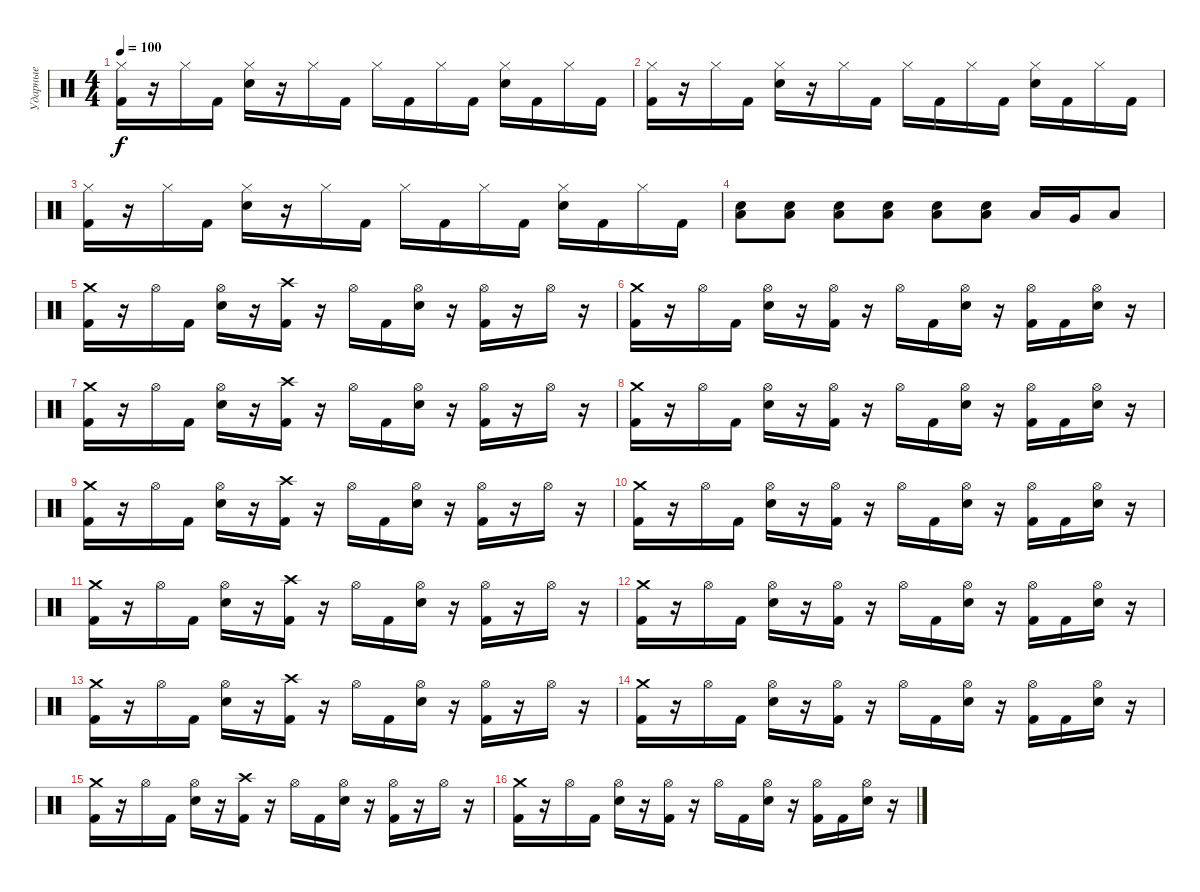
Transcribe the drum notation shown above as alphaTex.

\track ("Ударные" "Ударные") {instrument percussion}
\staff {score}
\articulation defaults
\ts (4 4)
\tempo 100
\clef neutral
\ks c
("Hi-Hat (closed)" "Kick (hit) 2").16{dy f} r.16 "Hi-Hat (closed)".16 "Kick (hit) 2".16 ("Hi-Hat (closed)" "Snare (hit) 2").16 r.16 "Hi-Hat (closed)".16 "Kick (hit) 2".16 "Hi-Hat (closed)".16 "Kick (hit) 2".16 "Hi-Hat (closed)".16 "Kick (hit) 2".16 ("Hi-Hat (closed)" "Snare (hit) 2").16 "Kick (hit) 2".16 "Hi-Hat (closed)".16 "Kick (hit) 2".16 |
("Hi-Hat (closed)" "Kick (hit) 2").16 r.16 "Hi-Hat (closed)".16 "Kick (hit) 2".16 ("Hi-Hat (closed)" "Snare (hit) 2").16 r.16 "Hi-Hat (closed)".16 "Kick (hit) 2".16 "Hi-Hat (closed)".16 "Kick (hit) 2".16 "Hi-Hat (closed)".16 "Kick (hit) 2".16 ("Hi-Hat (closed)" "Snare (hit) 2").16 "Kick (hit) 2".16 "Hi-Hat (closed)".16 "Kick (hit) 2".16 |
("Hi-Hat (closed)" "Kick (hit) 2").16 r.16 "Hi-Hat (closed)".16 "Kick (hit) 2".16 ("Hi-Hat (closed)" "Snare (hit) 2").16 r.16 "Hi-Hat (closed)".16 "Kick (hit) 2".16 "Hi-Hat (closed)".16 "Kick (hit) 2".16 "Hi-Hat (closed)".16 "Kick (hit) 2".16 ("Hi-Hat (closed)" "Snare (hit) 2").16 "Kick (hit) 2".16 "Hi-Hat (closed)".16 "Kick (hit) 2".16 |
("Low Floor Tom (hit)" "Snare (hit) 2").8 ("Low Floor Tom (hit)" "Snare (hit) 2").8 ("Low Floor Tom (hit)" "Snare (hit) 2").8 ("Low Floor Tom (hit)" "Snare (hit) 2").8 ("Low Floor Tom (hit)" "Snare (hit) 2").8 ("Low Floor Tom (hit)" "Snare (hit) 2").8 "Low Tom (hit)".16 "Very Low Tom (hit)".16 "Low Floor Tom (hit)".8 |
("Crash medium (hit)" "Kick (hit) 2").16 r.16 "Hi-Hat (open)".16 "Kick (hit) 2".16 ("Hi-Hat (open)" "Snare (hit) 2").16 r.16 ("Crash high (hit)" "Kick (hit) 2").16 r.16 "Hi-Hat (open)".16 "Kick (hit) 2".16 ("Hi-Hat (open)" "Snare (hit) 2").16 r.16 ("Hi-Hat (open)" "Kick (hit) 2").16 r.16 "Hi-Hat (open)".16 r.16 |
("Crash medium (hit)" "Kick (hit) 2").16 r.16 "Hi-Hat (open)".16 "Kick (hit) 2".16 ("Hi-Hat (open)" "Snare (hit) 2").16 r.16 ("Hi-Hat (open)" "Kick (hit) 2").16 r.16 "Hi-Hat (open)".16 "Kick (hit) 2".16 ("Hi-Hat (open)" "Snare (hit) 2").16 r.16 ("Hi-Hat (open)" "Kick (hit) 2").16 "Kick (hit) 2".16 ("Hi-Hat (open)" "Snare (hit) 2").16 r.16 |
("Crash medium (hit)" "Kick (hit) 2").16 r.16 "Hi-Hat (open)".16 "Kick (hit) 2".16 ("Hi-Hat (open)" "Snare (hit) 2").16 r.16 ("Crash high (hit)" "Kick (hit) 2").16 r.16 "Hi-Hat (open)".16 "Kick (hit) 2".16 ("Hi-Hat (open)" "Snare (hit) 2").16 r.16 ("Hi-Hat (open)" "Kick (hit) 2").16 r.16 "Hi-Hat (open)".16 r.16 |
("Crash medium (hit)" "Kick (hit) 2").16 r.16 "Hi-Hat (open)".16 "Kick (hit) 2".16 ("Hi-Hat (open)" "Snare (hit) 2").16 r.16 ("Hi-Hat (open)" "Kick (hit) 2").16 r.16 "Hi-Hat (open)".16 "Kick (hit) 2".16 ("Hi-Hat (open)" "Snare (hit) 2").16 r.16 ("Hi-Hat (open)" "Kick (hit) 2").16 "Kick (hit) 2".16 ("Hi-Hat (open)" "Snare (hit) 2").16 r.16 |
("Crash medium (hit)" "Kick (hit) 2").16 r.16 "Hi-Hat (open)".16 "Kick (hit) 2".16 ("Hi-Hat (open)" "Snare (hit) 2").16 r.16 ("Crash high (hit)" "Kick (hit) 2").16 r.16 "Hi-Hat (open)".16 "Kick (hit) 2".16 ("Hi-Hat (open)" "Snare (hit) 2").16 r.16 ("Hi-Hat (open)" "Kick (hit) 2").16 r.16 "Hi-Hat (open)".16 r.16 |
("Crash medium (hit)" "Kick (hit) 2").16 r.16 "Hi-Hat (open)".16 "Kick (hit) 2".16 ("Hi-Hat (open)" "Snare (hit) 2").16 r.16 ("Hi-Hat (open)" "Kick (hit) 2").16 r.16 "Hi-Hat (open)".16 "Kick (hit) 2".16 ("Hi-Hat (open)" "Snare (hit) 2").16 r.16 ("Hi-Hat (open)" "Kick (hit) 2").16 "Kick (hit) 2".16 ("Hi-Hat (open)" "Snare (hit) 2").16 r.16 |
("Crash medium (hit)" "Kick (hit) 2").16 r.16 "Hi-Hat (open)".16 "Kick (hit) 2".16 ("Hi-Hat (open)" "Snare (hit) 2").16 r.16 ("Crash high (hit)" "Kick (hit) 2").16 r.16 "Hi-Hat (open)".16 "Kick (hit) 2".16 ("Hi-Hat (open)" "Snare (hit) 2").16 r.16 ("Hi-Hat (open)" "Kick (hit) 2").16 r.16 "Hi-Hat (open)".16 r.16 |
("Crash medium (hit)" "Kick (hit) 2").16 r.16 "Hi-Hat (open)".16 "Kick (hit) 2".16 ("Hi-Hat (open)" "Snare (hit) 2").16 r.16 ("Hi-Hat (open)" "Kick (hit) 2").16 r.16 "Hi-Hat (open)".16 "Kick (hit) 2".16 ("Hi-Hat (open)" "Snare (hit) 2").16 r.16 ("Hi-Hat (open)" "Kick (hit) 2").16 "Kick (hit) 2".16 ("Hi-Hat (open)" "Snare (hit) 2").16 r.16 |
("Crash medium (hit)" "Kick (hit) 2").16 r.16 "Hi-Hat (open)".16 "Kick (hit) 2".16 ("Hi-Hat (open)" "Snare (hit) 2").16 r.16 ("Crash high (hit)" "Kick (hit) 2").16 r.16 "Hi-Hat (open)".16 "Kick (hit) 2".16 ("Hi-Hat (open)" "Snare (hit) 2").16 r.16 ("Hi-Hat (open)" "Kick (hit) 2").16 r.16 "Hi-Hat (open)".16 r.16 |
("Crash medium (hit)" "Kick (hit) 2").16 r.16 "Hi-Hat (open)".16 "Kick (hit) 2".16 ("Hi-Hat (open)" "Snare (hit) 2").16 r.16 ("Hi-Hat (open)" "Kick (hit) 2").16 r.16 "Hi-Hat (open)".16 "Kick (hit) 2".16 ("Hi-Hat (open)" "Snare (hit) 2").16 r.16 ("Hi-Hat (open)" "Kick (hit) 2").16 "Kick (hit) 2".16 ("Hi-Hat (open)" "Snare (hit) 2").16 r.16 |
("Crash medium (hit)" "Kick (hit) 2").16 r.16 "Hi-Hat (open)".16 "Kick (hit) 2".16 ("Hi-Hat (open)" "Snare (hit) 2").16 r.16 ("Crash high (hit)" "Kick (hit) 2").16 r.16 "Hi-Hat (open)".16 "Kick (hit) 2".16 ("Hi-Hat (open)" "Snare (hit) 2").16 r.16 ("Hi-Hat (open)" "Kick (hit) 2").16 r.16 "Hi-Hat (open)".16 r.16 |
("Crash medium (hit)" "Kick (hit) 2").16 r.16 "Hi-Hat (open)".16 "Kick (hit) 2".16 ("Hi-Hat (open)" "Snare (hit) 2").16 r.16 ("Hi-Hat (open)" "Kick (hit) 2").16 r.16 "Hi-Hat (open)".16 "Kick (hit) 2".16 ("Hi-Hat (open)" "Snare (hit) 2").16 r.16 ("Hi-Hat (open)" "Kick (hit) 2").16 "Kick (hit) 2".16 ("Hi-Hat (open)" "Snare (hit) 2").16 r.16
